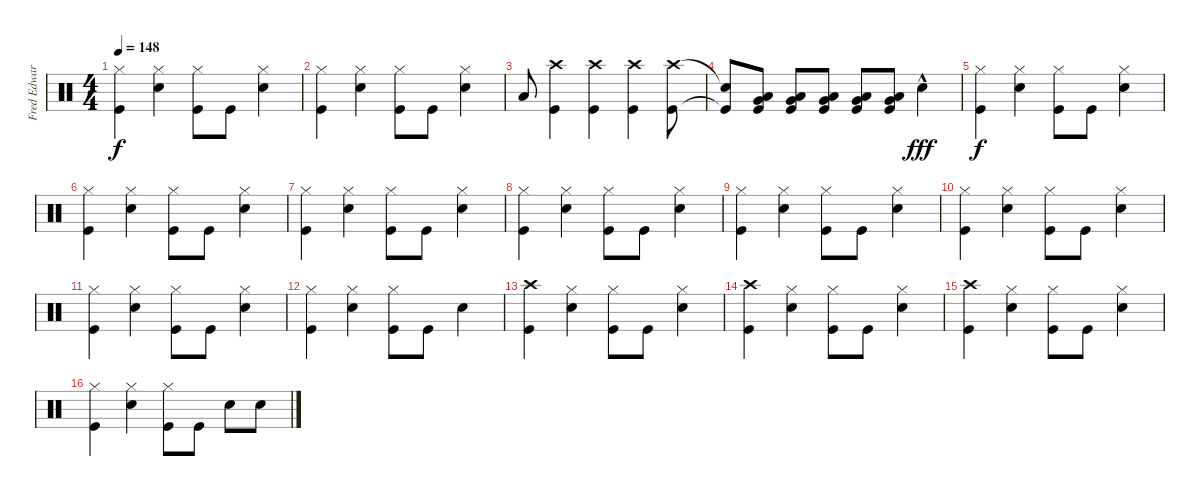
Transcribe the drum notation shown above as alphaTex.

\track ("Fred Edwards Drums" "Fred Edwar") {instrument percussion}
\staff {score}
\articulation defaults
\ts (4 4)
\tempo 148
\clef neutral
\ks c
("Hi-Hat (closed)" "Kick (hit)").4{dy f} ("Hi-Hat (closed)" "Snare (hit) 2").4 ("Hi-Hat (closed)" "Kick (hit)").8 "Kick (hit)".8 ("Hi-Hat (closed)" "Snare (hit) 2").4 |
("Hi-Hat (closed)" "Kick (hit)").4 ("Hi-Hat (closed)" "Snare (hit) 2").4 ("Hi-Hat (closed)" "Kick (hit)").8 "Kick (hit)".8 ("Hi-Hat (closed)" "Snare (hit) 2").4 |
"Low Tom (hit)".8 ("Crash high (hit)" "Kick (hit)").4 ("Crash high (hit)" "Kick (hit)").4 ("Crash high (hit)" "Kick (hit)").4 ("Crash high (hit)" "Kick (hit)").8 |
("Snare (hit)"{t} "Kick (hit)"{t}).8 ("Very Low Tom (hit)" "Low Floor Tom (hit)" "Kick (hit)").8 ("Very Low Tom (hit)" "Low Floor Tom (hit)" "Kick (hit)").8 ("Very Low Tom (hit)" "Low Floor Tom (hit)" "Kick (hit)").8 ("Very Low Tom (hit)" "Low Floor Tom (hit)" "Kick (hit)").8 ("Very Low Tom (hit)" "Low Floor Tom (hit)" "Kick (hit)").8 "Snare (hit) 2"{hac}.4{dy fff} |
("Hi-Hat (closed)" "Kick (hit)").4{dy f} ("Hi-Hat (closed)" "Snare (hit) 2").4 ("Hi-Hat (closed)" "Kick (hit)").8 "Kick (hit)".8 ("Hi-Hat (closed)" "Snare (hit) 2").4 |
("Hi-Hat (closed)" "Kick (hit)").4 ("Hi-Hat (closed)" "Snare (hit) 2").4 ("Hi-Hat (closed)" "Kick (hit)").8 "Kick (hit)".8 ("Hi-Hat (closed)" "Snare (hit) 2").4 |
("Hi-Hat (closed)" "Kick (hit)").4 ("Hi-Hat (closed)" "Snare (hit) 2").4 ("Hi-Hat (closed)" "Kick (hit)").8 "Kick (hit)".8 ("Hi-Hat (closed)" "Snare (hit) 2").4 |
("Hi-Hat (closed)" "Kick (hit)").4 ("Hi-Hat (closed)" "Snare (hit) 2").4 ("Hi-Hat (closed)" "Kick (hit)").8 "Kick (hit)".8 ("Hi-Hat (closed)" "Snare (hit) 2").4 |
("Hi-Hat (closed)" "Kick (hit)").4 ("Hi-Hat (closed)" "Snare (hit) 2").4 ("Hi-Hat (closed)" "Kick (hit)").8 "Kick (hit)".8 ("Hi-Hat (closed)" "Snare (hit) 2").4 |
("Hi-Hat (closed)" "Kick (hit)").4 ("Hi-Hat (closed)" "Snare (hit) 2").4 ("Hi-Hat (closed)" "Kick (hit)").8 "Kick (hit)".8 ("Hi-Hat (closed)" "Snare (hit) 2").4 |
("Hi-Hat (closed)" "Kick (hit)").4 ("Hi-Hat (closed)" "Snare (hit) 2").4 ("Hi-Hat (closed)" "Kick (hit)").8 "Kick (hit)".8 ("Hi-Hat (closed)" "Snare (hit) 2").4 |
("Hi-Hat (closed)" "Kick (hit)").4 ("Hi-Hat (closed)" "Snare (hit) 2").4 ("Hi-Hat (closed)" "Kick (hit)").8 "Kick (hit)".8 "Snare (hit) 2".4 |
("Crash high (hit)" "Kick (hit)").4 ("Hi-Hat (closed)" "Snare (hit) 2").4 ("Hi-Hat (closed)" "Kick (hit)").8 "Kick (hit)".8 ("Hi-Hat (closed)" "Snare (hit) 2").4 |
("Crash high (hit)" "Kick (hit)").4 ("Hi-Hat (closed)" "Snare (hit) 2").4 ("Hi-Hat (closed)" "Kick (hit)").8 "Kick (hit)".8 ("Hi-Hat (closed)" "Snare (hit) 2").4 |
("Crash high (hit)" "Kick (hit)").4 ("Hi-Hat (closed)" "Snare (hit) 2").4 ("Hi-Hat (closed)" "Kick (hit)").8 "Kick (hit)".8 ("Hi-Hat (closed)" "Snare (hit) 2").4 |
("Hi-Hat (closed)" "Kick (hit)").4 ("Hi-Hat (closed)" "Snare (hit) 2").4 ("Hi-Hat (closed)" "Kick (hit)").8 "Kick (hit)".8 "Snare (hit) 2".8 "Snare (hit) 2".8
